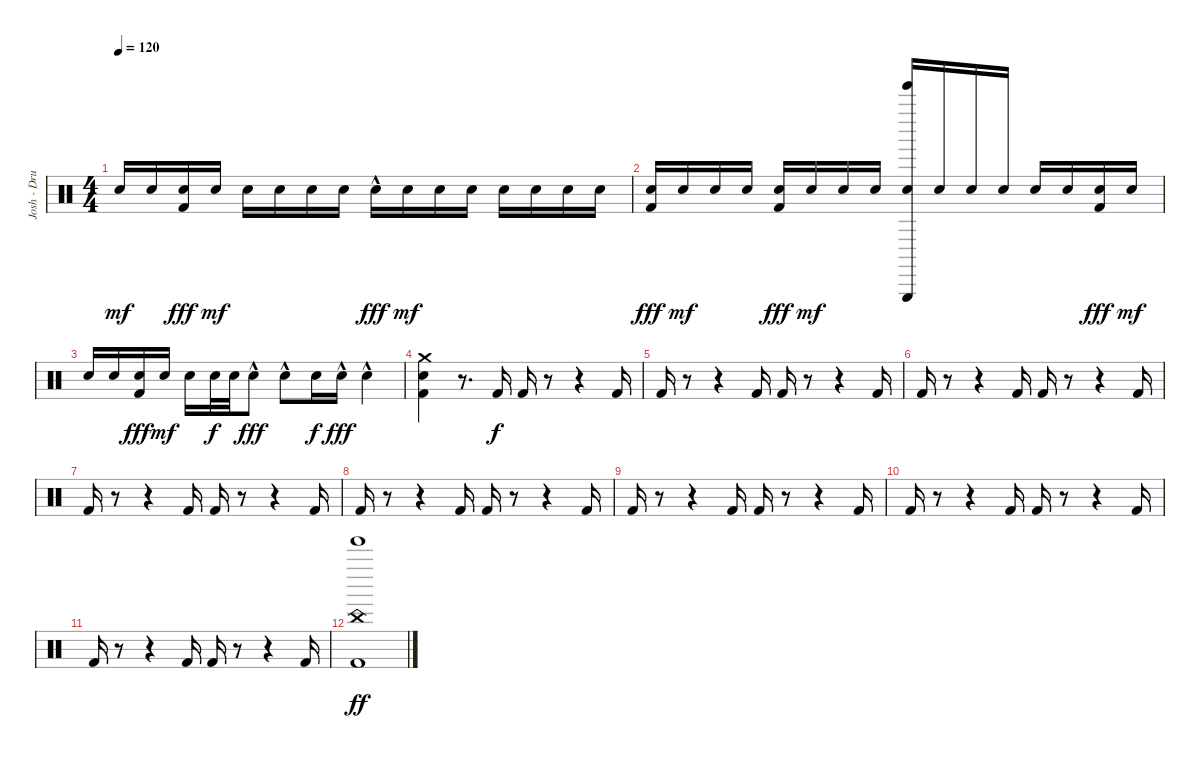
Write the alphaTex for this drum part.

\track ("Josh - Drums" "Josh - Dru") {instrument percussion}
\staff {score}
\articulation defaults
\ts (4 4)
\tempo 120
\clef neutral
\ks c "Electric Snare (hit)".16{dy mf} "Electric Snare (hit)".16
("Electric Snare (hit)" "Kick (hit) 2").16{dy fff} "Electric Snare (hit)".16{dy mf} "Electric Snare (hit)".16 "Electric Snare (hit)".16 "Electric Snare (hit)".16 "Electric Snare (hit)".16 "Snare (hit) 2"{hac}.16{dy fff} "Electric Snare (hit)".16{dy mf} "Electric Snare (hit)".16 "Electric Snare (hit)".16 "Electric Snare (hit)".16 "Electric Snare (hit)".16 "Electric Snare (hit)".16 "Electric Snare (hit)".16 |
("Electric Snare (hit)" "Kick (hit) 2").16{dy fff} "Electric Snare (hit)".16{dy mf} "Electric Snare (hit)".16 "Electric Snare (hit)".16 ("Electric Snare (hit)" "Kick (hit) 2").16{dy fff} "Electric Snare (hit)".16{dy mf} "Electric Snare (hit)".16 "Electric Snare (hit)".16 ("Electric Snare (hit)" "Tinkle Bell (hit)" "Triangle (hit)").16 "Electric Snare (hit)".16 "Electric Snare (hit)".16 "Electric Snare (hit)".16 "Electric Snare (hit)".16 "Electric Snare (hit)".16 ("Electric Snare (hit)" "Kick (hit) 2").16{dy fff} "Electric Snare (hit)".16{dy mf} |
"Electric Snare (hit)".16 "Electric Snare (hit)".16 ("Electric Snare (hit)" "Kick (hit) 2").16{dy fff} "Electric Snare (hit)".16{dy mf} "Electric Snare (hit)".16 "Snare (hit) 2".32{dy f} "Snare (hit) 2".32 "Snare (hit) 2"{hac}.8{dy fff} "Snare (hit) 2"{hac}.8 "Snare (hit) 2".16{dy f} "Snare (hit) 2"{hac}.16{dy fff} "Snare (hit) 2"{hac}.4 |
("Crash medium (hit)" "Electric Snare (hit)" "Kick (hit) 2").4 r.8{d} "Kick (hit) 2".16{dy f} "Kick (hit) 2".16 r.8 r.4 "Kick (hit) 2".16 |
"Kick (hit) 2".16 r.8 r.4 "Kick (hit) 2".16 "Kick (hit) 2".16 r.8 r.4 "Kick (hit) 2".16 |
"Kick (hit) 2".16 r.8 r.4 "Kick (hit) 2".16 "Kick (hit) 2".16 r.8 r.4 "Kick (hit) 2".16 |
"Kick (hit) 2".16 r.8 r.4 "Kick (hit) 2".16 "Kick (hit) 2".16 r.8 r.4 "Kick (hit) 2".16 |
"Kick (hit) 2".16 r.8 r.4 "Kick (hit) 2".16 "Kick (hit) 2".16 r.8 r.4 "Kick (hit) 2".16 |
"Kick (hit) 2".16 r.8 r.4 "Kick (hit) 2".16 "Kick (hit) 2".16 r.8 r.4 "Kick (hit) 2".16 |
"Kick (hit) 2".16 r.8 r.4 "Kick (hit) 2".16 "Kick (hit) 2".16 r.8 r.4 "Kick (hit) 2".16 |
"Kick (hit) 2".16 r.8 r.4 "Kick (hit) 2".16 "Kick (hit) 2".16 r.8 r.4 "Kick (hit) 2".16 |
("China (hit)" "Tinkle Bell (hit)" "Kick (hit) 2").1{dy ff}
